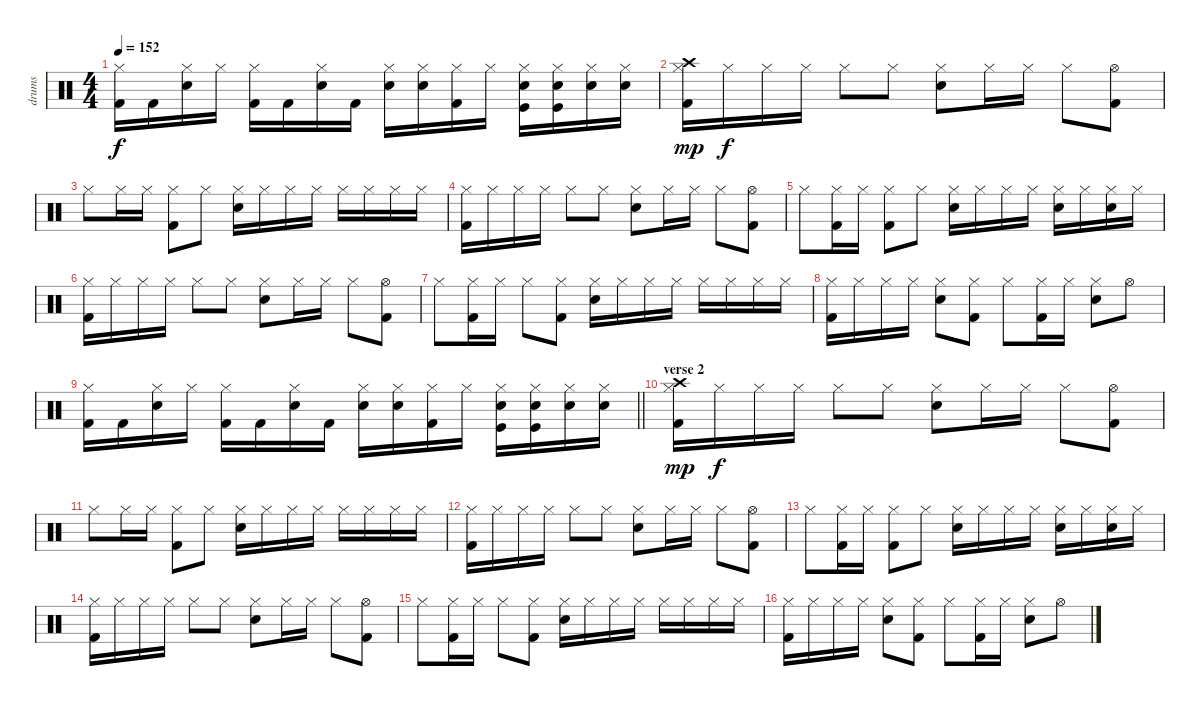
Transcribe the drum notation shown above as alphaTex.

\track ("drums" "drums") {instrument percussion}
\staff {score}
\articulation defaults
\ts (4 4)
\tempo 152
\clef neutral
\ks c
("Hi-Hat (closed)" "Kick (hit) 2").16{dy f} "Kick (hit) 2".16 ("Hi-Hat (closed)" "Snare (hit) 2").16 "Hi-Hat (closed)".16 ("Hi-Hat (closed)" "Kick (hit) 2").16 "Kick (hit) 2".16 ("Hi-Hat (closed)" "Snare (hit) 2").16 "Kick (hit) 2".16 ("Hi-Hat (closed)" "Snare (hit) 2").16 ("Hi-Hat (closed)" "Snare (hit) 2").16 ("Hi-Hat (closed)" "Kick (hit) 2").16 "Hi-Hat (closed)".16 ("Hi-Hat (closed)" "Snare (hit) 2" "Kick (hit)").16 ("Hi-Hat (closed)" "Snare (hit) 2" "Kick (hit)").16 ("Hi-Hat (closed)" "Snare (hit) 2").16 ("Hi-Hat (closed)" "Snare (hit) 2").16 |
("Hi-Hat (closed)" "Kick (hit) 2" "Crash high (hit)").16{dy mp} "Hi-Hat (closed)".16{dy f} "Hi-Hat (closed)".16 "Hi-Hat (closed)".16 "Hi-Hat (closed)".8 "Hi-Hat (closed)".8 ("Snare (hit) 2" "Hi-Hat (closed)").8 "Hi-Hat (closed)".16 "Hi-Hat (closed)".16 "Hi-Hat (closed)".8 ("Hi-Hat (open)" "Kick (hit) 2").8 |
"Hi-Hat (closed)".8 "Hi-Hat (closed)".16 "Hi-Hat (closed)".16 ("Hi-Hat (closed)" "Kick (hit) 2").8 "Hi-Hat (closed)".8 ("Hi-Hat (closed)" "Snare (hit) 2").16 "Hi-Hat (closed)".16 "Hi-Hat (closed)".16 "Hi-Hat (closed)".16 "Hi-Hat (closed)".16 "Hi-Hat (closed)".16 "Hi-Hat (closed)".16 "Hi-Hat (closed)".16 |
("Hi-Hat (closed)" "Kick (hit) 2").16 "Hi-Hat (closed)".16 "Hi-Hat (closed)".16 "Hi-Hat (closed)".16 "Hi-Hat (closed)".8 "Hi-Hat (closed)".8 ("Snare (hit) 2" "Hi-Hat (closed)").8 "Hi-Hat (closed)".16 "Hi-Hat (closed)".16 "Hi-Hat (closed)".8 ("Hi-Hat (open)" "Kick (hit) 2").8 |
"Hi-Hat (closed)".8 ("Hi-Hat (closed)" "Kick (hit) 2").16 "Hi-Hat (closed)".16 ("Hi-Hat (closed)" "Kick (hit) 2").8 "Hi-Hat (closed)".8 ("Hi-Hat (closed)" "Snare (hit) 2").16 "Hi-Hat (closed)".16 "Hi-Hat (closed)".16 "Hi-Hat (closed)".16 ("Hi-Hat (closed)" "Snare (hit) 2").16 "Hi-Hat (closed)".16 ("Hi-Hat (closed)" "Snare (hit) 2").16 "Hi-Hat (closed)".16 |
("Hi-Hat (closed)" "Kick (hit) 2").16 "Hi-Hat (closed)".16 "Hi-Hat (closed)".16 "Hi-Hat (closed)".16 "Hi-Hat (closed)".8 "Hi-Hat (closed)".8 ("Snare (hit) 2" "Hi-Hat (closed)").8 "Hi-Hat (closed)".16 "Hi-Hat (closed)".16 "Hi-Hat (closed)".8 ("Hi-Hat (open)" "Kick (hit) 2").8 |
"Hi-Hat (closed)".8 ("Hi-Hat (closed)" "Kick (hit) 2").16 "Hi-Hat (closed)".16 "Hi-Hat (closed)".8 ("Hi-Hat (closed)" "Kick (hit) 2").8 ("Hi-Hat (closed)" "Snare (hit) 2").16 "Hi-Hat (closed)".16 "Hi-Hat (closed)".16 "Hi-Hat (closed)".16 "Hi-Hat (closed)".16 "Hi-Hat (closed)".16 "Hi-Hat (closed)".16 "Hi-Hat (closed)".16 |
("Hi-Hat (closed)" "Kick (hit) 2").16 "Hi-Hat (closed)".16 "Hi-Hat (closed)".16 "Hi-Hat (closed)".16 ("Hi-Hat (closed)" "Snare (hit) 2").8 ("Hi-Hat (closed)" "Kick (hit) 2").8 "Hi-Hat (closed)".8 ("Hi-Hat (closed)" "Kick (hit) 2").16 "Hi-Hat (closed)".16 ("Hi-Hat (closed)" "Snare (hit) 2").8 "Hi-Hat (open)".8 |
\barLineRight lightlight
("Hi-Hat (closed)" "Kick (hit) 2").16 "Kick (hit) 2".16 ("Hi-Hat (closed)" "Snare (hit) 2").16 "Hi-Hat (closed)".16 ("Hi-Hat (closed)" "Kick (hit) 2").16 "Kick (hit) 2".16 ("Hi-Hat (closed)" "Snare (hit) 2").16 "Kick (hit) 2".16 ("Hi-Hat (closed)" "Snare (hit) 2").16 ("Hi-Hat (closed)" "Snare (hit) 2").16 ("Hi-Hat (closed)" "Kick (hit) 2").16 "Hi-Hat (closed)".16 ("Hi-Hat (closed)" "Snare (hit) 2" "Kick (hit)").16 ("Hi-Hat (closed)" "Snare (hit) 2" "Kick (hit)").16 ("Hi-Hat (closed)" "Snare (hit) 2").16 ("Hi-Hat (closed)" "Snare (hit) 2").16 |
\section ("" "verse 2")
("Hi-Hat (closed)" "Kick (hit) 2" "Crash high (hit)").16{dy mp} "Hi-Hat (closed)".16{dy f} "Hi-Hat (closed)".16 "Hi-Hat (closed)".16 "Hi-Hat (closed)".8 "Hi-Hat (closed)".8 ("Snare (hit) 2" "Hi-Hat (closed)").8 "Hi-Hat (closed)".16 "Hi-Hat (closed)".16 "Hi-Hat (closed)".8 ("Hi-Hat (open)" "Kick (hit) 2").8 |
"Hi-Hat (closed)".8 "Hi-Hat (closed)".16 "Hi-Hat (closed)".16 ("Hi-Hat (closed)" "Kick (hit) 2").8 "Hi-Hat (closed)".8 ("Hi-Hat (closed)" "Snare (hit) 2").16 "Hi-Hat (closed)".16 "Hi-Hat (closed)".16 "Hi-Hat (closed)".16 "Hi-Hat (closed)".16 "Hi-Hat (closed)".16 "Hi-Hat (closed)".16 "Hi-Hat (closed)".16 |
("Hi-Hat (closed)" "Kick (hit) 2").16 "Hi-Hat (closed)".16 "Hi-Hat (closed)".16 "Hi-Hat (closed)".16 "Hi-Hat (closed)".8 "Hi-Hat (closed)".8 ("Snare (hit) 2" "Hi-Hat (closed)").8 "Hi-Hat (closed)".16 "Hi-Hat (closed)".16 "Hi-Hat (closed)".8 ("Hi-Hat (open)" "Kick (hit) 2").8 |
"Hi-Hat (closed)".8 ("Hi-Hat (closed)" "Kick (hit) 2").16 "Hi-Hat (closed)".16 ("Hi-Hat (closed)" "Kick (hit) 2").8 "Hi-Hat (closed)".8 ("Hi-Hat (closed)" "Snare (hit) 2").16 "Hi-Hat (closed)".16 "Hi-Hat (closed)".16 "Hi-Hat (closed)".16 ("Hi-Hat (closed)" "Snare (hit) 2").16 "Hi-Hat (closed)".16 ("Hi-Hat (closed)" "Snare (hit) 2").16 "Hi-Hat (closed)".16 |
("Hi-Hat (closed)" "Kick (hit) 2").16 "Hi-Hat (closed)".16 "Hi-Hat (closed)".16 "Hi-Hat (closed)".16 "Hi-Hat (closed)".8 "Hi-Hat (closed)".8 ("Snare (hit) 2" "Hi-Hat (closed)").8 "Hi-Hat (closed)".16 "Hi-Hat (closed)".16 "Hi-Hat (closed)".8 ("Hi-Hat (open)" "Kick (hit) 2").8 |
"Hi-Hat (closed)".8 ("Hi-Hat (closed)" "Kick (hit) 2").16 "Hi-Hat (closed)".16 "Hi-Hat (closed)".8 ("Hi-Hat (closed)" "Kick (hit) 2").8 ("Hi-Hat (closed)" "Snare (hit) 2").16 "Hi-Hat (closed)".16 "Hi-Hat (closed)".16 "Hi-Hat (closed)".16 "Hi-Hat (closed)".16 "Hi-Hat (closed)".16 "Hi-Hat (closed)".16 "Hi-Hat (closed)".16 |
("Hi-Hat (closed)" "Kick (hit) 2").16 "Hi-Hat (closed)".16 "Hi-Hat (closed)".16 "Hi-Hat (closed)".16 ("Hi-Hat (closed)" "Snare (hit) 2").8 ("Hi-Hat (closed)" "Kick (hit) 2").8 "Hi-Hat (closed)".8 ("Hi-Hat (closed)" "Kick (hit) 2").16 "Hi-Hat (closed)".16 ("Hi-Hat (closed)" "Snare (hit) 2").8 "Hi-Hat (open)".8
